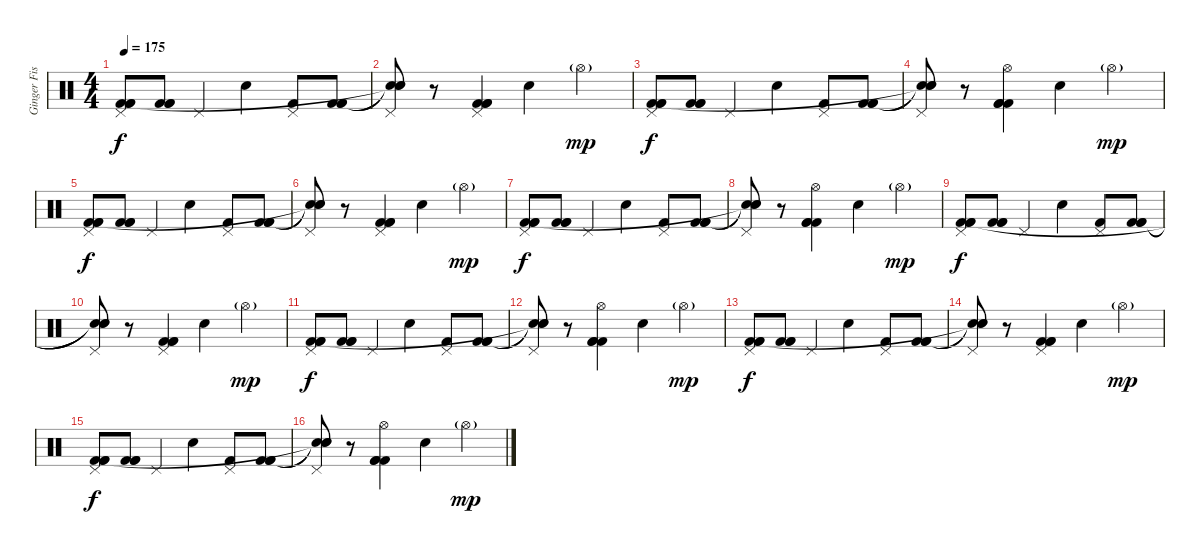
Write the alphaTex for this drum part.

\track ("Ginger Fish" "Ginger Fis") {instrument percussion}
\staff {score}
\articulation defaults
\ts (4 4)
\tempo 175
\clef neutral
\ks c
("Pedal Hi-Hat (hit)" "Kick (hit) 2" "Kick (hit) 2" "Kick (hit) 2").8{dy f} ("Kick (hit) 2" "Kick (hit) 2" "Kick (hit) 2").8 "Pedal Hi-Hat (hit)".4 "Snare (hit) 2".4 ("Pedal Hi-Hat (hit)" "Kick (hit) 2").8 ("Kick (hit) 2" "Kick (hit) 2" "Kick (hit) 2").8 |
("Pedal Hi-Hat (hit)" "Snare (hit)"{t} "Snare (hit)"{t} "Snare (hit)"{t}).8 r.8 ("Pedal Hi-Hat (hit)" "Kick (hit) 2" "Kick (hit) 2" "Kick (hit) 2").4 "Snare (hit) 2".4 "Hi-Hat (open)"{g}.4{dy mp} |
("Pedal Hi-Hat (hit)" "Kick (hit) 2" "Kick (hit) 2" "Kick (hit) 2").8{dy f} ("Kick (hit) 2" "Kick (hit) 2" "Kick (hit) 2").8 "Pedal Hi-Hat (hit)".4 "Snare (hit) 2".4 ("Pedal Hi-Hat (hit)" "Kick (hit) 2").8 ("Kick (hit) 2" "Kick (hit) 2" "Kick (hit) 2").8 |
("Pedal Hi-Hat (hit)" "Snare (hit)"{t} "Snare (hit)"{t} "Snare (hit)"{t}).8 r.8 ("Hi-Hat (open)" "Kick (hit) 2" "Kick (hit) 2" "Kick (hit) 2").4 "Snare (hit) 2".4 "Hi-Hat (open)"{g}.4{dy mp} |
("Pedal Hi-Hat (hit)" "Kick (hit) 2" "Kick (hit) 2" "Kick (hit) 2").8{dy f} ("Kick (hit) 2" "Kick (hit) 2" "Kick (hit) 2").8 "Pedal Hi-Hat (hit)".4 "Snare (hit) 2".4 ("Pedal Hi-Hat (hit)" "Kick (hit) 2").8 ("Kick (hit) 2" "Kick (hit) 2" "Kick (hit) 2").8 |
("Pedal Hi-Hat (hit)" "Snare (hit)"{t} "Snare (hit)"{t} "Snare (hit)"{t}).8 r.8 ("Pedal Hi-Hat (hit)" "Kick (hit) 2" "Kick (hit) 2" "Kick (hit) 2").4 "Snare (hit) 2".4 "Hi-Hat (open)"{g}.4{dy mp} |
("Pedal Hi-Hat (hit)" "Kick (hit) 2" "Kick (hit) 2" "Kick (hit) 2").8{dy f} ("Kick (hit) 2" "Kick (hit) 2" "Kick (hit) 2").8 "Pedal Hi-Hat (hit)".4 "Snare (hit) 2".4 ("Pedal Hi-Hat (hit)" "Kick (hit) 2").8 ("Kick (hit) 2" "Kick (hit) 2" "Kick (hit) 2").8 |
("Pedal Hi-Hat (hit)" "Snare (hit)"{t} "Snare (hit)"{t} "Snare (hit)"{t}).8 r.8 ("Hi-Hat (open)" "Kick (hit) 2" "Kick (hit) 2" "Kick (hit) 2").4 "Snare (hit) 2".4 "Hi-Hat (open)"{g}.4{dy mp} |
("Pedal Hi-Hat (hit)" "Kick (hit) 2" "Kick (hit) 2" "Kick (hit) 2").8{dy f} ("Kick (hit) 2" "Kick (hit) 2" "Kick (hit) 2").8 "Pedal Hi-Hat (hit)".4 "Snare (hit) 2".4 ("Pedal Hi-Hat (hit)" "Kick (hit) 2").8 ("Kick (hit) 2" "Kick (hit) 2" "Kick (hit) 2").8 |
("Pedal Hi-Hat (hit)" "Snare (hit)"{t} "Snare (hit)"{t} "Snare (hit)"{t}).8 r.8 ("Pedal Hi-Hat (hit)" "Kick (hit) 2" "Kick (hit) 2" "Kick (hit) 2").4 "Snare (hit) 2".4 "Hi-Hat (open)"{g}.4{dy mp} |
("Pedal Hi-Hat (hit)" "Kick (hit) 2" "Kick (hit) 2" "Kick (hit) 2").8{dy f} ("Kick (hit) 2" "Kick (hit) 2" "Kick (hit) 2").8 "Pedal Hi-Hat (hit)".4 "Snare (hit) 2".4 ("Pedal Hi-Hat (hit)" "Kick (hit) 2").8 ("Kick (hit) 2" "Kick (hit) 2" "Kick (hit) 2").8 |
("Pedal Hi-Hat (hit)" "Snare (hit)"{t} "Snare (hit)"{t} "Snare (hit)"{t}).8 r.8 ("Hi-Hat (open)" "Kick (hit) 2" "Kick (hit) 2" "Kick (hit) 2").4 "Snare (hit) 2".4 "Hi-Hat (open)"{g}.4{dy mp} |
("Pedal Hi-Hat (hit)" "Kick (hit) 2" "Kick (hit) 2" "Kick (hit) 2").8{dy f} ("Kick (hit) 2" "Kick (hit) 2" "Kick (hit) 2").8 "Pedal Hi-Hat (hit)".4 "Snare (hit) 2".4 ("Pedal Hi-Hat (hit)" "Kick (hit) 2").8 ("Kick (hit) 2" "Kick (hit) 2" "Kick (hit) 2").8 |
("Pedal Hi-Hat (hit)" "Snare (hit)"{t} "Snare (hit)"{t} "Snare (hit)"{t}).8 r.8 ("Pedal Hi-Hat (hit)" "Kick (hit) 2" "Kick (hit) 2" "Kick (hit) 2").4 "Snare (hit) 2".4 "Hi-Hat (open)"{g}.4{dy mp} |
("Pedal Hi-Hat (hit)" "Kick (hit) 2" "Kick (hit) 2" "Kick (hit) 2").8{dy f} ("Kick (hit) 2" "Kick (hit) 2" "Kick (hit) 2").8 "Pedal Hi-Hat (hit)".4 "Snare (hit) 2".4 ("Pedal Hi-Hat (hit)" "Kick (hit) 2").8 ("Kick (hit) 2" "Kick (hit) 2" "Kick (hit) 2").8 |
("Pedal Hi-Hat (hit)" "Snare (hit)"{t} "Snare (hit)"{t} "Snare (hit)"{t}).8 r.8 ("Hi-Hat (open)" "Kick (hit) 2" "Kick (hit) 2" "Kick (hit) 2").4 "Snare (hit) 2".4 "Hi-Hat (open)"{g}.4{dy mp}
